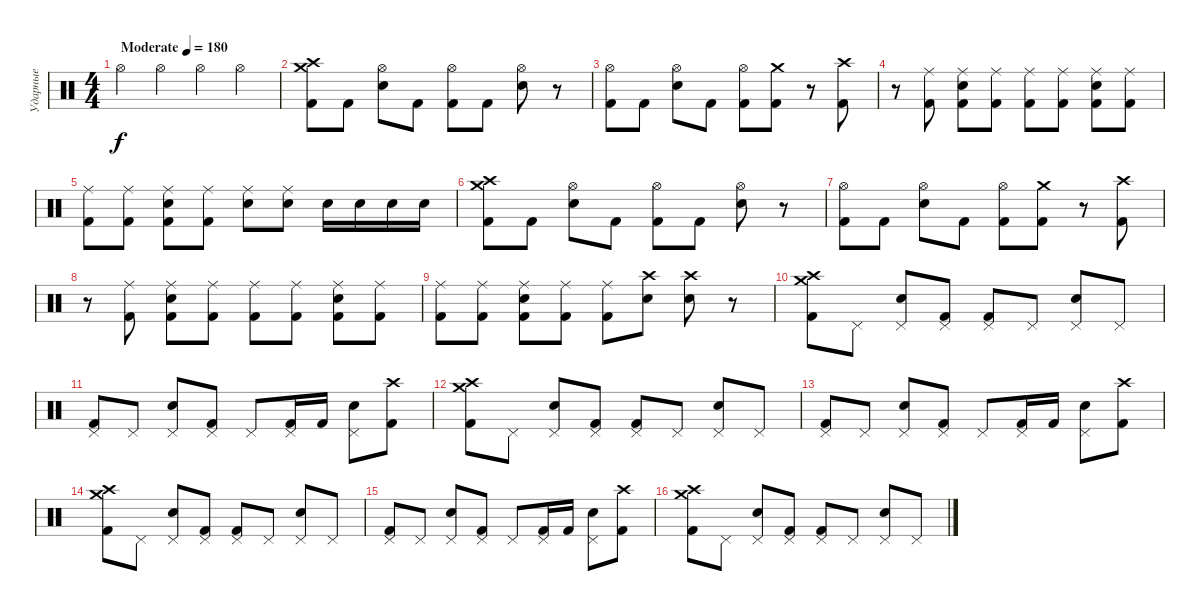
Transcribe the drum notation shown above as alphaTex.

\track ("Ударные" "Ударные") {instrument percussion}
\staff {score}
\articulation defaults
\ts (4 4)
\tempo (180 "Moderate")
\clef neutral
\ks c "Hi-Hat (open)".4{dy f} "Hi-Hat (open)".4 "Hi-Hat (open)".4 "Hi-Hat (open)".4
|
("Crash medium (hit)" "Crash high (hit)" "Kick (hit) 2").8 "Kick (hit) 2".8 ("Hi-Hat (open)" "Electric Snare (hit)").8 "Kick (hit) 2".8 ("Hi-Hat (open)" "Kick (hit) 2").8 "Kick (hit) 2".8 ("Hi-Hat (open)" "Electric Snare (hit)").8 r.8 |
("Hi-Hat (open)" "Kick (hit) 2").8 "Kick (hit) 2".8 ("Hi-Hat (open)" "Electric Snare (hit)").8 "Kick (hit) 2".8 ("Hi-Hat (open)" "Kick (hit) 2").8 ("Crash medium (hit)" "Kick (hit) 2").8 r.8 ("Crash high (hit)" "Kick (hit) 2").8 |
r.8 ("Ride (middle)" "Kick (hit) 2").8 ("Ride (middle)" "Electric Snare (hit)" "Kick (hit) 2").8 ("Ride (middle)" "Kick (hit) 2").8 ("Ride (middle)" "Kick (hit) 2").8 ("Ride (middle)" "Kick (hit) 2").8 ("Ride (middle)" "Electric Snare (hit)" "Kick (hit) 2").8 ("Ride (middle)" "Kick (hit) 2").8 |
("Ride (middle)" "Kick (hit) 2").8 ("Ride (middle)" "Kick (hit) 2").8 ("Ride (middle)" "Electric Snare (hit)" "Kick (hit) 2").8 ("Ride (middle)" "Kick (hit) 2").8 ("Ride (middle)" "Electric Snare (hit)").8 ("Ride (middle)" "Electric Snare (hit)").8 "Electric Snare (hit)".16 "Electric Snare (hit)".16 "Electric Snare (hit)".16 "Electric Snare (hit)".16 |
("Crash medium (hit)" "Crash high (hit)" "Kick (hit) 2").8 "Kick (hit) 2".8 ("Hi-Hat (open)" "Electric Snare (hit)").8 "Kick (hit) 2".8 ("Hi-Hat (open)" "Kick (hit) 2").8 "Kick (hit) 2".8 ("Hi-Hat (open)" "Electric Snare (hit)").8 r.8 |
("Hi-Hat (open)" "Kick (hit) 2").8 "Kick (hit) 2".8 ("Hi-Hat (open)" "Electric Snare (hit)").8 "Kick (hit) 2".8 ("Hi-Hat (open)" "Kick (hit) 2").8 ("Crash medium (hit)" "Kick (hit) 2").8 r.8 ("Crash high (hit)" "Kick (hit) 2").8 |
r.8 ("Ride (middle)" "Kick (hit) 2").8 ("Ride (middle)" "Electric Snare (hit)" "Kick (hit) 2").8 ("Ride (middle)" "Kick (hit) 2").8 ("Ride (middle)" "Kick (hit) 2").8 ("Ride (middle)" "Kick (hit) 2").8 ("Ride (middle)" "Electric Snare (hit)" "Kick (hit) 2").8 ("Ride (middle)" "Kick (hit) 2").8 |
("Ride (middle)" "Kick (hit) 2").8 ("Ride (middle)" "Kick (hit) 2").8 ("Ride (middle)" "Electric Snare (hit)" "Kick (hit) 2").8 ("Ride (middle)" "Kick (hit) 2").8 ("Ride (middle)" "Kick (hit) 2").8 ("Crash high (hit)" "Electric Snare (hit)").8 ("Crash high (hit)" "Electric Snare (hit)").8 r.8 |
("Crash medium (hit)" "Crash high (hit)" "Kick (hit) 2").8 "Pedal Hi-Hat (hit)".8 ("Pedal Hi-Hat (hit)" "Electric Snare (hit)").8 ("Pedal Hi-Hat (hit)" "Kick (hit) 2").8 ("Pedal Hi-Hat (hit)" "Kick (hit) 2").8 "Pedal Hi-Hat (hit)".8 ("Pedal Hi-Hat (hit)" "Electric Snare (hit)").8 "Pedal Hi-Hat (hit)".8 |
("Pedal Hi-Hat (hit)" "Kick (hit) 2").8 "Pedal Hi-Hat (hit)".8 ("Pedal Hi-Hat (hit)" "Electric Snare (hit)").8 ("Pedal Hi-Hat (hit)" "Kick (hit) 2").8 "Pedal Hi-Hat (hit)".8 ("Pedal Hi-Hat (hit)" "Kick (hit) 2").16 "Kick (hit) 2".16 ("Pedal Hi-Hat (hit)" "Electric Snare (hit)").8 ("Crash high (hit)" "Kick (hit) 2").8 |
("Crash medium (hit)" "Crash high (hit)" "Kick (hit) 2").8 "Pedal Hi-Hat (hit)".8 ("Pedal Hi-Hat (hit)" "Electric Snare (hit)").8 ("Pedal Hi-Hat (hit)" "Kick (hit) 2").8 ("Pedal Hi-Hat (hit)" "Kick (hit) 2").8 "Pedal Hi-Hat (hit)".8 ("Pedal Hi-Hat (hit)" "Electric Snare (hit)").8 "Pedal Hi-Hat (hit)".8 |
("Pedal Hi-Hat (hit)" "Kick (hit) 2").8 "Pedal Hi-Hat (hit)".8 ("Pedal Hi-Hat (hit)" "Electric Snare (hit)").8 ("Pedal Hi-Hat (hit)" "Kick (hit) 2").8 "Pedal Hi-Hat (hit)".8 ("Pedal Hi-Hat (hit)" "Kick (hit) 2").16 "Kick (hit) 2".16 ("Pedal Hi-Hat (hit)" "Electric Snare (hit)").8 ("Crash high (hit)" "Kick (hit) 2").8 |
("Crash medium (hit)" "Crash high (hit)" "Kick (hit) 2").8 "Pedal Hi-Hat (hit)".8 ("Pedal Hi-Hat (hit)" "Electric Snare (hit)").8 ("Pedal Hi-Hat (hit)" "Kick (hit) 2").8 ("Pedal Hi-Hat (hit)" "Kick (hit) 2").8 "Pedal Hi-Hat (hit)".8 ("Pedal Hi-Hat (hit)" "Electric Snare (hit)").8 "Pedal Hi-Hat (hit)".8 |
("Pedal Hi-Hat (hit)" "Kick (hit) 2").8 "Pedal Hi-Hat (hit)".8 ("Pedal Hi-Hat (hit)" "Electric Snare (hit)").8 ("Pedal Hi-Hat (hit)" "Kick (hit) 2").8 "Pedal Hi-Hat (hit)".8 ("Pedal Hi-Hat (hit)" "Kick (hit) 2").16 "Kick (hit) 2".16 ("Pedal Hi-Hat (hit)" "Electric Snare (hit)").8 ("Crash high (hit)" "Kick (hit) 2").8 |
("Crash medium (hit)" "Crash high (hit)" "Kick (hit) 2").8 "Pedal Hi-Hat (hit)".8 ("Pedal Hi-Hat (hit)" "Electric Snare (hit)").8 ("Pedal Hi-Hat (hit)" "Kick (hit) 2").8 ("Pedal Hi-Hat (hit)" "Kick (hit) 2").8 "Pedal Hi-Hat (hit)".8 ("Pedal Hi-Hat (hit)" "Electric Snare (hit)").8 "Pedal Hi-Hat (hit)".8
